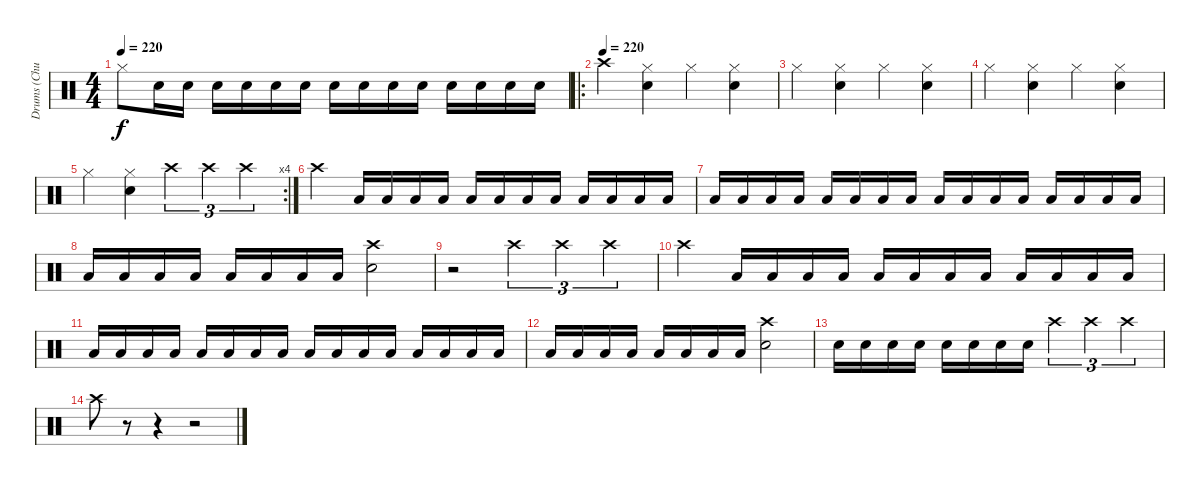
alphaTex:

\track ("Drums (Chuck Behler)" "Drums (Chu") {instrument percussion}
\staff {score}
\articulation defaults
\ts (4 4)
\tempo 220
\clef neutral
\ks c "Hi-Hat (closed)".8{dy f} "Snare (hit) 2".16 "Snare (hit) 2".16 "Snare (hit) 2".16 "Snare (hit) 2".16 "Snare (hit) 2".16 "Snare (hit) 2".16 "Snare (hit) 2".16 "Snare (hit) 2".16 "Snare (hit) 2".16 "Snare (hit) 2".16 "Snare (hit) 2".16 "Snare (hit) 2".16 "Snare (hit) 2".16 "Snare (hit) 2".16
|
\ro
\tempo (220)
"Crash high (hit)".4 ("Hi-Hat (closed)" "Snare (hit) 2").4 "Hi-Hat (closed)".4 ("Hi-Hat (closed)" "Snare (hit) 2").4 |
"Hi-Hat (closed)".4 ("Hi-Hat (closed)" "Snare (hit) 2").4 "Hi-Hat (closed)".4 ("Hi-Hat (closed)" "Snare (hit) 2").4 |
"Hi-Hat (closed)".4 ("Hi-Hat (closed)" "Snare (hit) 2").4 "Hi-Hat (closed)".4 ("Hi-Hat (closed)" "Snare (hit) 2").4 |
\rc 4 "Hi-Hat (closed)".4
("Hi-Hat (closed)" "Snare (hit) 2").4 "Crash high (hit)".4{tu (3 2)} "Crash high (hit)".4{tu (3 2)} "Crash high (hit)".4{tu (3 2)} |
"Crash high (hit)".4 "Low Floor Tom (hit)".16 "Low Floor Tom (hit)".16 "Low Floor Tom (hit)".16 "Low Floor Tom (hit)".16 "Low Floor Tom (hit)".16 "Low Floor Tom (hit)".16 "Low Floor Tom (hit)".16 "Low Floor Tom (hit)".16 "Low Floor Tom (hit)".16 "Low Floor Tom (hit)".16 "Low Floor Tom (hit)".16 "Low Floor Tom (hit)".16 |
"Low Floor Tom (hit)".16 "Low Floor Tom (hit)".16 "Low Floor Tom (hit)".16 "Low Floor Tom (hit)".16 "Low Floor Tom (hit)".16 "Low Floor Tom (hit)".16 "Low Floor Tom (hit)".16 "Low Floor Tom (hit)".16 "Low Floor Tom (hit)".16 "Low Floor Tom (hit)".16 "Low Floor Tom (hit)".16 "Low Floor Tom (hit)".16 "Low Floor Tom (hit)".16 "Low Floor Tom (hit)".16 "Low Floor Tom (hit)".16 "Low Floor Tom (hit)".16 |
"Low Floor Tom (hit)".16 "Low Floor Tom (hit)".16 "Low Floor Tom (hit)".16 "Low Floor Tom (hit)".16 "Low Floor Tom (hit)".16 "Low Floor Tom (hit)".16 "Low Floor Tom (hit)".16 "Low Floor Tom (hit)".16 ("Crash high (hit)" "Snare (hit) 2").2 |
r.2 "Crash high (hit)".4{tu (3 2)} "Crash high (hit)".4{tu (3 2)} "Crash high (hit)".4{tu (3 2)} |
"Crash high (hit)".4 "Low Floor Tom (hit)".16 "Low Floor Tom (hit)".16 "Low Floor Tom (hit)".16 "Low Floor Tom (hit)".16 "Low Floor Tom (hit)".16 "Low Floor Tom (hit)".16 "Low Floor Tom (hit)".16 "Low Floor Tom (hit)".16 "Low Floor Tom (hit)".16 "Low Floor Tom (hit)".16 "Low Floor Tom (hit)".16 "Low Floor Tom (hit)".16 |
"Low Floor Tom (hit)".16 "Low Floor Tom (hit)".16 "Low Floor Tom (hit)".16 "Low Floor Tom (hit)".16 "Low Floor Tom (hit)".16 "Low Floor Tom (hit)".16 "Low Floor Tom (hit)".16 "Low Floor Tom (hit)".16 "Low Floor Tom (hit)".16 "Low Floor Tom (hit)".16 "Low Floor Tom (hit)".16 "Low Floor Tom (hit)".16 "Low Floor Tom (hit)".16 "Low Floor Tom (hit)".16 "Low Floor Tom (hit)".16 "Low Floor Tom (hit)".16 |
"Low Floor Tom (hit)".16 "Low Floor Tom (hit)".16 "Low Floor Tom (hit)".16 "Low Floor Tom (hit)".16 "Low Floor Tom (hit)".16 "Low Floor Tom (hit)".16 "Low Floor Tom (hit)".16 "Low Floor Tom (hit)".16 ("Crash high (hit)" "Snare (hit) 2").2 |
"Snare (hit) 2".16 "Snare (hit) 2".16 "Snare (hit) 2".16 "Snare (hit) 2".16 "Snare (hit) 2".16 "Snare (hit) 2".16 "Snare (hit) 2".16 "Snare (hit) 2".16 "Crash high (hit)".4{tu (3 2)} "Crash high (hit)".4{tu (3 2)} "Crash high (hit)".4{tu (3 2)} |
"Crash high (hit)".8 r.8 r.4 r.2
